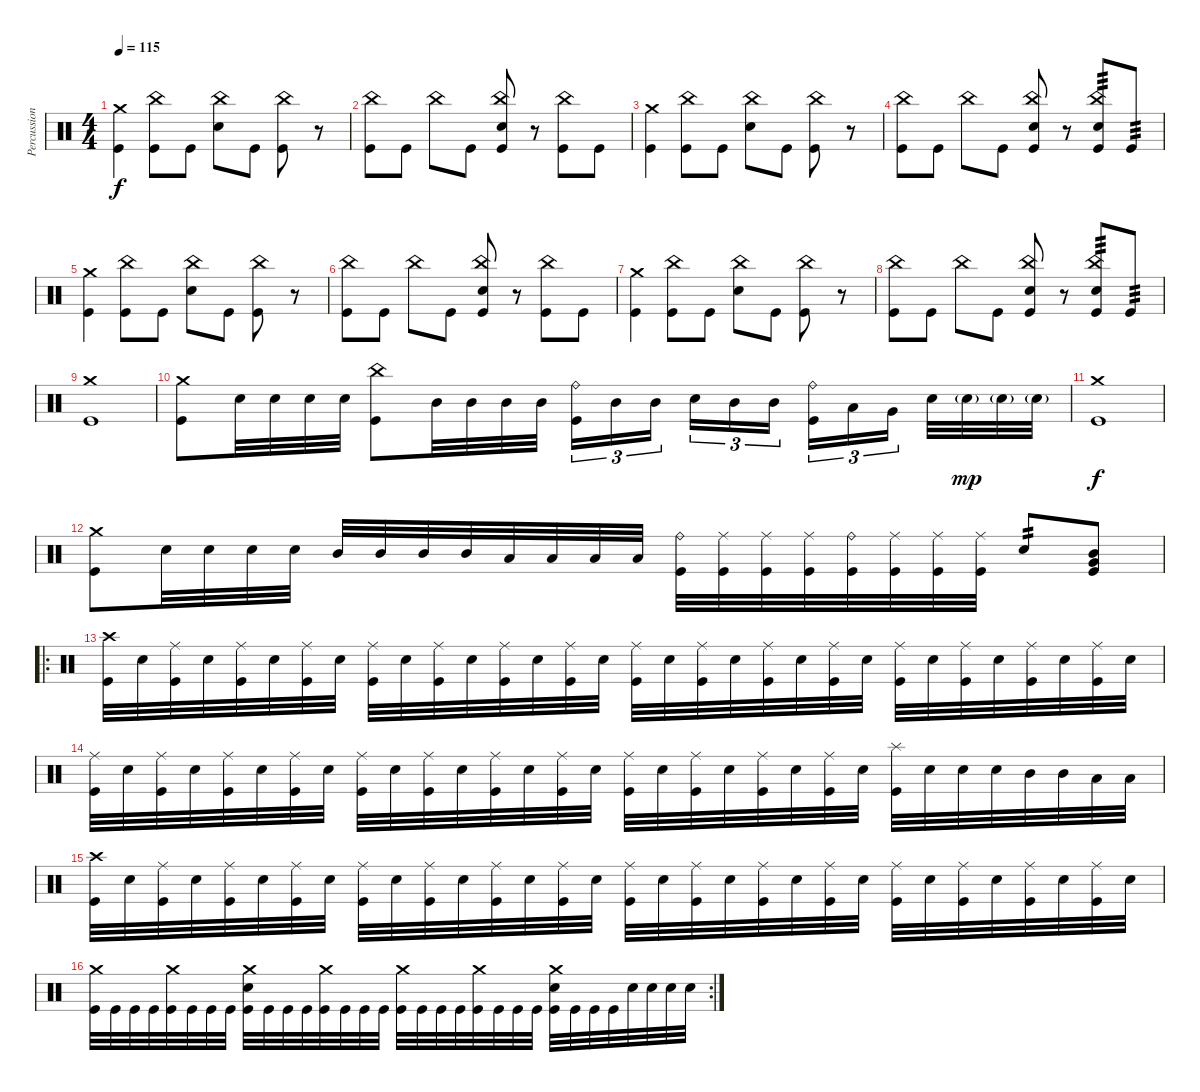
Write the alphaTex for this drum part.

\track ("Percussion" "Percussion") {instrument percussion}
\staff {score}
\articulation defaults
\ts (4 4)
\tempo 115
\clef neutral
\ks c
("Crash medium (hit)" "Kick (hit)").4{dy f} ("China (hit)" "Kick (hit)").8 "Kick (hit)".8 ("China (hit)" "Electric Snare (hit)").8 "Kick (hit)".8 ("China (hit)" "Kick (hit)").8 r.8 |
("China (hit)" "Kick (hit)").8 "Kick (hit)".8 "China (hit)".8 "Kick (hit)".8 ("China (hit)" "Electric Snare (hit)" "Kick (hit)").8 r.8 ("China (hit)" "Kick (hit)").8 "Kick (hit)".8 |
("Crash medium (hit)" "Kick (hit)").4 ("China (hit)" "Kick (hit)").8 "Kick (hit)".8 ("China (hit)" "Electric Snare (hit)").8 "Kick (hit)".8 ("China (hit)" "Kick (hit)").8 r.8 |
("China (hit)" "Kick (hit)").8 "Kick (hit)".8 "China (hit)".8 "Kick (hit)".8 ("China (hit)" "Electric Snare (hit)" "Kick (hit)").8 r.8 ("China (hit)" "Electric Snare (hit)" "Kick (hit)").8{tp 3} "Kick (hit)".8{tp 3} |
("Crash medium (hit)" "Kick (hit)").4 ("China (hit)" "Kick (hit)").8 "Kick (hit)".8 ("China (hit)" "Electric Snare (hit)").8 "Kick (hit)".8 ("China (hit)" "Kick (hit)").8 r.8 |
("China (hit)" "Kick (hit)").8 "Kick (hit)".8 "China (hit)".8 "Kick (hit)".8 ("China (hit)" "Electric Snare (hit)" "Kick (hit)").8 r.8 ("China (hit)" "Kick (hit)").8 "Kick (hit)".8 |
("Crash medium (hit)" "Kick (hit)").4 ("China (hit)" "Kick (hit)").8 "Kick (hit)".8 ("China (hit)" "Electric Snare (hit)").8 "Kick (hit)".8 ("China (hit)" "Kick (hit)").8 r.8 |
("China (hit)" "Kick (hit)").8 "Kick (hit)".8 "China (hit)".8 "Kick (hit)".8 ("China (hit)" "Electric Snare (hit)" "Kick (hit)").8 r.8 ("China (hit)" "Electric Snare (hit)" "Kick (hit)").8{tp 3} "Kick (hit)".8{tp 3} |
("Crash medium (hit)" "Kick (hit)").1 |
("Crash medium (hit)" "Kick (hit)").8 "Electric Snare (hit)".32 "Electric Snare (hit)".32 "Electric Snare (hit)".32 "Electric Snare (hit)".32 ("China (hit)" "Kick (hit)").8 "Mid Tom (hit)".32 "Mid Tom (hit)".32 "Mid Tom (hit)".32 "Mid Tom (hit)".32 ("Ride (bell)" "Kick (hit)").16{tu (3 2)} "Mid Tom (hit)".16{tu (3 2)} "Mid Tom (hit)".16{tu (3 2) beam splitsecondary} "Electric Snare (hit)".16{tu (3 2)} "Mid Tom (hit)".16{tu (3 2)} "Mid Tom (hit)".16{tu (3 2)} ("Ride (bell)" "Kick (hit)").16{tu (3 2)} "Low Tom (hit)".16{tu (3 2)} "Very Low Tom (hit)".16{tu (3 2) beam splitsecondary} "Electric Snare (hit)".32 "Electric Snare (hit)"{g}.32{dy mp} "Electric Snare (hit)"{g}.32 "Electric Snare (hit)"{g}.32 |
("Crash medium (hit)" "Kick (hit)").1{dy f} |
("Crash medium (hit)" "Kick (hit)").8 "Electric Snare (hit)".32 "Electric Snare (hit)".32 "Electric Snare (hit)".32 "Electric Snare (hit)".32 "Mid Tom (hit)".32 "Mid Tom (hit)".32 "Mid Tom (hit)".32 "Mid Tom (hit)".32 "Low Tom (hit)".32 "Low Tom (hit)".32 "Low Tom (hit)".32 "Low Tom (hit)".32 ("Ride (bell)" "Kick (hit)").32 ("Ride (middle)" "Kick (hit)").32 ("Ride (middle)" "Kick (hit)").32 ("Ride (middle)" "Kick (hit)").32 ("Ride (bell)" "Kick (hit)").32 ("Ride (middle)" "Kick (hit)").32 ("Ride (middle)" "Kick (hit)").32 ("Ride (middle)" "Kick (hit)").32 "Electric Snare (hit)".8{tp 2} ("Kick (hit)" "Mid Tom (hit)" "Very Low Tom (hit)").8 |
\ro
("Crash high (hit)" "Kick (hit)").32 "Electric Snare (hit)".32 ("Ride (middle)" "Kick (hit)").32 "Electric Snare (hit)".32 ("Ride (middle)" "Kick (hit)").32 "Electric Snare (hit)".32 ("Ride (middle)" "Kick (hit)").32 "Electric Snare (hit)".32 ("Ride (middle)" "Kick (hit)").32 "Electric Snare (hit)".32 ("Ride (middle)" "Kick (hit)").32 "Electric Snare (hit)".32 ("Ride (middle)" "Kick (hit)").32 "Electric Snare (hit)".32 ("Ride (middle)" "Kick (hit)").32 "Electric Snare (hit)".32 ("Ride (middle)" "Kick (hit)").32 "Electric Snare (hit)".32 ("Ride (middle)" "Kick (hit)").32 "Electric Snare (hit)".32 ("Ride (middle)" "Kick (hit)").32 "Electric Snare (hit)".32 ("Ride (middle)" "Kick (hit)").32 "Electric Snare (hit)".32 ("Ride (middle)" "Kick (hit)").32 "Electric Snare (hit)".32 ("Ride (middle)" "Kick (hit)").32 "Electric Snare (hit)".32 ("Ride (middle)" "Kick (hit)").32 "Electric Snare (hit)".32 ("Ride (middle)" "Kick (hit)").32 "Electric Snare (hit)".32 |
("Ride (middle)" "Kick (hit)").32 "Electric Snare (hit)".32 ("Ride (middle)" "Kick (hit)").32 "Electric Snare (hit)".32 ("Ride (middle)" "Kick (hit)").32 "Electric Snare (hit)".32 ("Ride (middle)" "Kick (hit)").32 "Electric Snare (hit)".32 ("Ride (middle)" "Kick (hit)").32 "Electric Snare (hit)".32 ("Ride (middle)" "Kick (hit)").32 "Electric Snare (hit)".32 ("Ride (middle)" "Kick (hit)").32 "Electric Snare (hit)".32 ("Ride (middle)" "Kick (hit)").32 "Electric Snare (hit)".32 ("Ride (middle)" "Kick (hit)").32 "Electric Snare (hit)".32 ("Ride (middle)" "Kick (hit)").32 "Electric Snare (hit)".32 ("Ride (middle)" "Kick (hit)").32 "Electric Snare (hit)".32 ("Ride (middle)" "Kick (hit)").32 "Electric Snare (hit)".32 ("Splash (hit)" "Kick (hit)").32 "Electric Snare (hit)".32 "Electric Snare (hit)".32 "Electric Snare (hit)".32 "Mid Tom (hit)".32 "Mid Tom (hit)".32 "Low Tom (hit)".32 "Low Tom (hit)".32 |
("Crash high (hit)" "Kick (hit)").32 "Electric Snare (hit)".32 ("Ride (middle)" "Kick (hit)").32 "Electric Snare (hit)".32 ("Ride (middle)" "Kick (hit)").32 "Electric Snare (hit)".32 ("Ride (middle)" "Kick (hit)").32 "Electric Snare (hit)".32 ("Ride (middle)" "Kick (hit)").32 "Electric Snare (hit)".32 ("Ride (middle)" "Kick (hit)").32 "Electric Snare (hit)".32 ("Ride (middle)" "Kick (hit)").32 "Electric Snare (hit)".32 ("Ride (middle)" "Kick (hit)").32 "Electric Snare (hit)".32 ("Ride (middle)" "Kick (hit)").32 "Electric Snare (hit)".32 ("Ride (middle)" "Kick (hit)").32 "Electric Snare (hit)".32 ("Ride (middle)" "Kick (hit)").32 "Electric Snare (hit)".32 ("Ride (middle)" "Kick (hit)").32 "Electric Snare (hit)".32 ("Ride (middle)" "Kick (hit)").32 "Electric Snare (hit)".32 ("Ride (middle)" "Kick (hit)").32 "Electric Snare (hit)".32 ("Ride (middle)" "Kick (hit)").32 "Electric Snare (hit)".32 ("Ride (middle)" "Kick (hit)").32 "Electric Snare (hit)".32 |
\rc 2
("Crash medium (hit)" "Kick (hit)").32 "Kick (hit)".32 "Kick (hit)".32 "Kick (hit)".32 ("Crash medium (hit)" "Kick (hit)").32 "Kick (hit)".32 "Kick (hit)".32 "Kick (hit)".32 ("Crash medium (hit)" "Electric Snare (hit)" "Kick (hit)").32 "Kick (hit)".32 "Kick (hit)".32 "Kick (hit)".32 ("Crash medium (hit)" "Kick (hit)").32 "Kick (hit)".32 "Kick (hit)".32 "Kick (hit)".32 ("Crash medium (hit)" "Kick (hit)").32 "Kick (hit)".32 "Kick (hit)".32 "Kick (hit)".32 ("Crash medium (hit)" "Kick (hit)").32 "Kick (hit)".32 "Kick (hit)".32 "Kick (hit)".32 ("Crash medium (hit)" "Electric Snare (hit)" "Kick (hit)").32 "Kick (hit)".32 "Kick (hit)".32 "Kick (hit)".32 "Electric Snare (hit)".32 "Electric Snare (hit)".32 "Electric Snare (hit)".32 "Electric Snare (hit)".32
